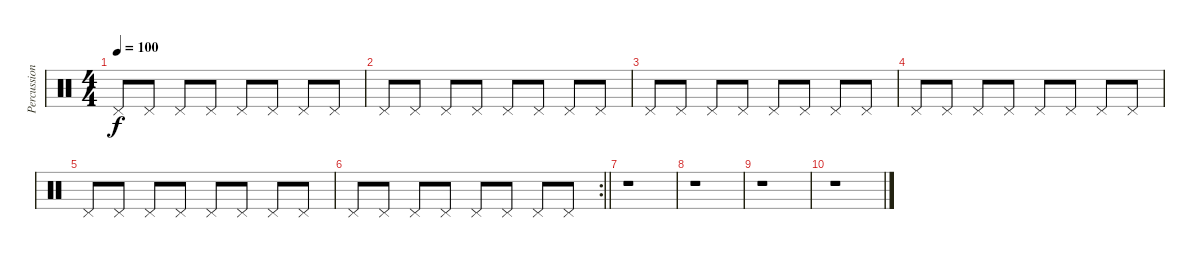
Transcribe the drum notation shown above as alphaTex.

\track ("Percussions" "Percussion") {instrument percussion}
\staff {score}
\articulation defaults
\ts (4 4)
\tempo 100
\clef neutral
\ks c "Pedal Hi-Hat (hit)".8{dy f} "Pedal Hi-Hat (hit)".8 "Pedal Hi-Hat (hit)".8 "Pedal Hi-Hat (hit)".8 "Pedal Hi-Hat (hit)".8 "Pedal Hi-Hat (hit)".8 "Pedal Hi-Hat (hit)".8 "Pedal Hi-Hat (hit)".8
|
"Pedal Hi-Hat (hit)".8 "Pedal Hi-Hat (hit)".8 "Pedal Hi-Hat (hit)".8 "Pedal Hi-Hat (hit)".8 "Pedal Hi-Hat (hit)".8 "Pedal Hi-Hat (hit)".8 "Pedal Hi-Hat (hit)".8 "Pedal Hi-Hat (hit)".8 |
"Pedal Hi-Hat (hit)".8 "Pedal Hi-Hat (hit)".8 "Pedal Hi-Hat (hit)".8 "Pedal Hi-Hat (hit)".8 "Pedal Hi-Hat (hit)".8 "Pedal Hi-Hat (hit)".8 "Pedal Hi-Hat (hit)".8 "Pedal Hi-Hat (hit)".8 |
"Pedal Hi-Hat (hit)".8 "Pedal Hi-Hat (hit)".8 "Pedal Hi-Hat (hit)".8 "Pedal Hi-Hat (hit)".8 "Pedal Hi-Hat (hit)".8 "Pedal Hi-Hat (hit)".8 "Pedal Hi-Hat (hit)".8 "Pedal Hi-Hat (hit)".8 |
"Pedal Hi-Hat (hit)".8 "Pedal Hi-Hat (hit)".8 "Pedal Hi-Hat (hit)".8 "Pedal Hi-Hat (hit)".8 "Pedal Hi-Hat (hit)".8 "Pedal Hi-Hat (hit)".8 "Pedal Hi-Hat (hit)".8 "Pedal Hi-Hat (hit)".8 |
\rc 2
\barLineRight lightlight "Pedal Hi-Hat (hit)".8 "Pedal Hi-Hat (hit)".8 "Pedal Hi-Hat (hit)".8 "Pedal Hi-Hat (hit)".8 "Pedal Hi-Hat (hit)".8 "Pedal Hi-Hat (hit)".8 "Pedal Hi-Hat (hit)".8 "Pedal Hi-Hat (hit)".8
|
r.1 |
r.1 |
r.1 |
r.1
